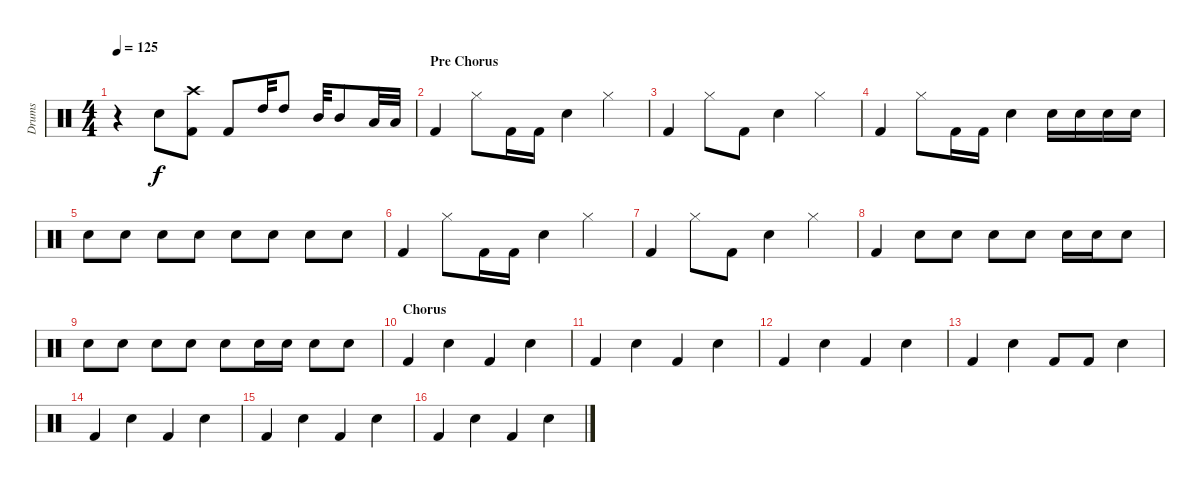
\track ("Drums" "Drums") {instrument percussion}
\staff {score}
\articulation defaults
\ts (4 4)
\tempo 125
\clef neutral
\ks c
r.4{dy f} "Snare (hit) 2".8 ("Kick (hit) 2" "Crash high (hit)").8 "Kick (hit) 2".8 "High Tom (hit)".32 "High Tom (hit)".8 "Mid Tom (hit)".32 "Mid Tom (hit)".8 "Low Tom (hit)".32 "Low Tom (hit)".32 |
\section ("" "Pre Chorus")
"Kick (hit) 2".4 "Hi-Hat (closed)".8 "Kick (hit) 2".16 "Kick (hit) 2".16 "Snare (hit) 2".4 "Hi-Hat (closed)".4 |
"Kick (hit) 2".4 "Hi-Hat (closed)".8 "Kick (hit) 2".8 "Snare (hit) 2".4 "Hi-Hat (closed)".4 |
"Kick (hit) 2".4 "Hi-Hat (closed)".8 "Kick (hit) 2".16 "Kick (hit) 2".16 "Snare (hit) 2".4 "Snare (hit) 2".16 "Snare (hit) 2".16 "Snare (hit) 2".16 "Snare (hit) 2".16 |
"Snare (hit) 2".8 "Snare (hit) 2".8 "Snare (hit) 2".8 "Snare (hit) 2".8 "Snare (hit) 2".8 "Snare (hit) 2".8 "Snare (hit) 2".8 "Snare (hit) 2".8 |
"Kick (hit) 2".4 "Hi-Hat (closed)".8 "Kick (hit) 2".16 "Kick (hit) 2".16 "Snare (hit) 2".4 "Hi-Hat (closed)".4 |
"Kick (hit) 2".4 "Hi-Hat (closed)".8 "Kick (hit) 2".8 "Snare (hit) 2".4 "Hi-Hat (closed)".4 |
"Kick (hit) 2".4 "Snare (hit) 2".8 "Snare (hit) 2".8 "Snare (hit) 2".8 "Snare (hit) 2".8 "Snare (hit) 2".16 "Snare (hit) 2".16 "Snare (hit) 2".8 |
"Snare (hit) 2".8 "Snare (hit) 2".8 "Snare (hit) 2".8 "Snare (hit) 2".8 "Snare (hit) 2".8 "Snare (hit) 2".16 "Snare (hit) 2".16 "Snare (hit) 2".8 "Snare (hit) 2".8 |
\section ("" "Chorus")
"Kick (hit) 2".4 "Snare (hit) 2".4 "Kick (hit) 2".4 "Snare (hit) 2".4 |
"Kick (hit) 2".4 "Snare (hit) 2".4 "Kick (hit) 2".4 "Snare (hit) 2".4 |
"Kick (hit) 2".4 "Snare (hit) 2".4 "Kick (hit) 2".4 "Snare (hit) 2".4 |
"Kick (hit) 2".4 "Snare (hit) 2".4 "Kick (hit) 2".8 "Kick (hit) 2".8 "Snare (hit) 2".4 |
"Kick (hit) 2".4 "Snare (hit) 2".4 "Kick (hit) 2".4 "Snare (hit) 2".4 |
"Kick (hit) 2".4 "Snare (hit) 2".4 "Kick (hit) 2".4 "Snare (hit) 2".4 |
"Kick (hit) 2".4 "Snare (hit) 2".4 "Kick (hit) 2".4 "Snare (hit) 2".4
